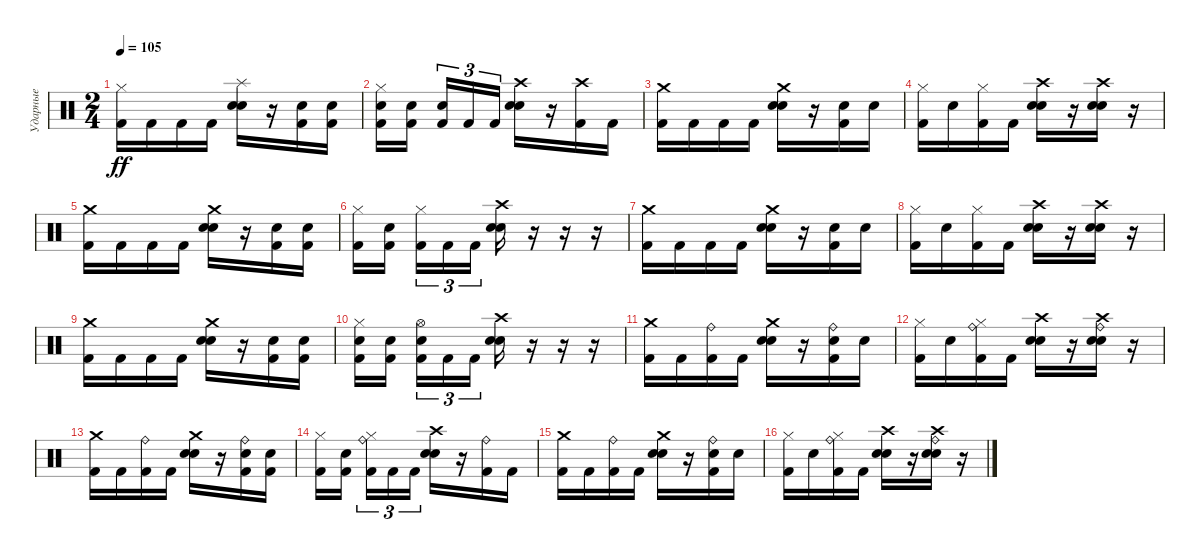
\track ("Ударные" "Ударные") {instrument percussion}
\staff {score}
\articulation defaults
\ts (2 4)
\tempo 105
\clef neutral
\ks c
("Hi-Hat (closed)" "Kick (hit) 2").16{dy ff} "Kick (hit) 2".16 "Kick (hit) 2".16 "Kick (hit) 2".16 ("Splash (hit)" "Snare (hit) 2" "Electric Snare (hit)").16 r.16 ("Kick (hit) 2" "Electric Snare (hit)").16 ("Kick (hit) 2" "Electric Snare (hit)").16 |
("Hi-Hat (closed)" "Kick (hit) 2" "Electric Snare (hit)").16 ("Kick (hit) 2" "Electric Snare (hit)").16 ("Kick (hit) 2" "Electric Snare (hit)").16{tu (3 2)} "Kick (hit) 2".16{tu (3 2)} "Kick (hit) 2".16{tu (3 2)} ("Crash high (hit)" "Snare (hit) 2" "Electric Snare (hit)").16 r.16 ("Crash high (hit)" "Kick (hit) 2").16 "Kick (hit) 2".16 |
("Crash medium (hit)" "Kick (hit) 2").16 "Kick (hit) 2".16 "Kick (hit) 2".16 "Kick (hit) 2".16 ("Crash medium (hit)" "Snare (hit) 2" "Electric Snare (hit)").16 r.16 ("Kick (hit) 2" "Electric Snare (hit)").16 "Electric Snare (hit)".16 |
("Hi-Hat (closed)" "Kick (hit) 2").16 "Electric Snare (hit)".16 ("Hi-Hat (closed)" "Kick (hit) 2").16 "Kick (hit) 2".16 ("Crash high (hit)" "Snare (hit) 2" "Electric Snare (hit)").16 r.16 ("Crash high (hit)" "Snare (hit) 2" "Electric Snare (hit)").16 r.16 |
("Crash medium (hit)" "Kick (hit) 2").16 "Kick (hit) 2".16 "Kick (hit) 2".16 "Kick (hit) 2".16 ("Crash medium (hit)" "Snare (hit) 2" "Electric Snare (hit)").16 r.16 ("Kick (hit) 2" "Electric Snare (hit)").16 ("Kick (hit) 2" "Electric Snare (hit)").16 |
("Hi-Hat (closed)" "Kick (hit) 2").16 ("Kick (hit) 2" "Electric Snare (hit)").16 ("Hi-Hat (closed)" "Kick (hit) 2").16{tu (3 2)} "Kick (hit) 2".16{tu (3 2)} "Kick (hit) 2".16{tu (3 2)} ("Crash high (hit)" "Snare (hit) 2" "Electric Snare (hit)").16 r.16 r.16 r.16 |
("Crash medium (hit)" "Kick (hit) 2").16 "Kick (hit) 2".16 "Kick (hit) 2".16 "Kick (hit) 2".16 ("Crash medium (hit)" "Snare (hit) 2" "Electric Snare (hit)").16 r.16 ("Kick (hit) 2" "Electric Snare (hit)").16 "Electric Snare (hit)".16 |
("Hi-Hat (closed)" "Kick (hit) 2").16 "Electric Snare (hit)".16 ("Hi-Hat (closed)" "Kick (hit) 2").16 "Kick (hit) 2".16 ("Crash high (hit)" "Snare (hit) 2" "Electric Snare (hit)").16 r.16 ("Crash high (hit)" "Snare (hit) 2" "Electric Snare (hit)").16 r.16 |
("Crash medium (hit)" "Kick (hit) 2").16 "Kick (hit) 2".16 "Kick (hit) 2".16 "Kick (hit) 2".16 ("Crash medium (hit)" "Snare (hit) 2" "Electric Snare (hit)").16 r.16 ("Kick (hit) 2" "Electric Snare (hit)").16 ("Kick (hit) 2" "Electric Snare (hit)").16 |
("Hi-Hat (closed)" "Kick (hit) 2" "Electric Snare (hit)").16 ("Kick (hit) 2" "Electric Snare (hit)").16 ("Hi-Hat (open)" "Kick (hit) 2" "Electric Snare (hit)").16{tu (3 2)} "Kick (hit) 2".16{tu (3 2)} "Kick (hit) 2".16{tu (3 2)} ("Crash high (hit)" "Snare (hit) 2" "Electric Snare (hit)").16 r.16 r.16 r.16 |
("Crash medium (hit)" "Kick (hit) 2").16 "Kick (hit) 2".16 ("Ride (bell)" "Kick (hit) 2").16 "Kick (hit) 2".16 ("Crash medium (hit)" "Snare (hit) 2" "Electric Snare (hit)").16 r.16 ("Ride (bell)" "Kick (hit) 2" "Electric Snare (hit)").16 "Electric Snare (hit)".16 |
("Hi-Hat (closed)" "Kick (hit) 2").16 "Electric Snare (hit)".16 ("Hi-Hat (closed)" "Ride (bell)" "Kick (hit) 2").16 "Kick (hit) 2".16 ("Crash high (hit)" "Snare (hit) 2" "Electric Snare (hit)").16 r.16 ("Crash high (hit)" "Ride (bell)" "Snare (hit) 2" "Electric Snare (hit)").16 r.16 |
("Crash medium (hit)" "Kick (hit) 2").16 "Kick (hit) 2".16 ("Ride (bell)" "Kick (hit) 2").16 "Kick (hit) 2".16 ("Crash medium (hit)" "Snare (hit) 2" "Electric Snare (hit)").16 r.16 ("Ride (bell)" "Kick (hit) 2" "Electric Snare (hit)").16 ("Kick (hit) 2" "Electric Snare (hit)").16 |
("Hi-Hat (closed)" "Kick (hit) 2").16 ("Kick (hit) 2" "Electric Snare (hit)").16 ("Hi-Hat (closed)" "Ride (bell)" "Kick (hit) 2").16{tu (3 2)} "Kick (hit) 2".16{tu (3 2)} "Kick (hit) 2".16{tu (3 2)} ("Crash high (hit)" "Snare (hit) 2" "Electric Snare (hit)").16 r.16 ("Ride (bell)" "Kick (hit) 2").16 "Kick (hit) 2".16 |
("Crash medium (hit)" "Kick (hit) 2").16 "Kick (hit) 2".16 ("Ride (bell)" "Kick (hit) 2").16 "Kick (hit) 2".16 ("Crash medium (hit)" "Snare (hit) 2" "Electric Snare (hit)").16 r.16 ("Ride (bell)" "Kick (hit) 2" "Electric Snare (hit)").16 "Electric Snare (hit)".16 |
("Hi-Hat (closed)" "Kick (hit) 2").16 "Electric Snare (hit)".16 ("Hi-Hat (closed)" "Ride (bell)" "Kick (hit) 2").16 "Kick (hit) 2".16 ("Crash high (hit)" "Snare (hit) 2" "Electric Snare (hit)").16 r.16 ("Crash high (hit)" "Ride (bell)" "Snare (hit) 2" "Electric Snare (hit)").16 r.16
